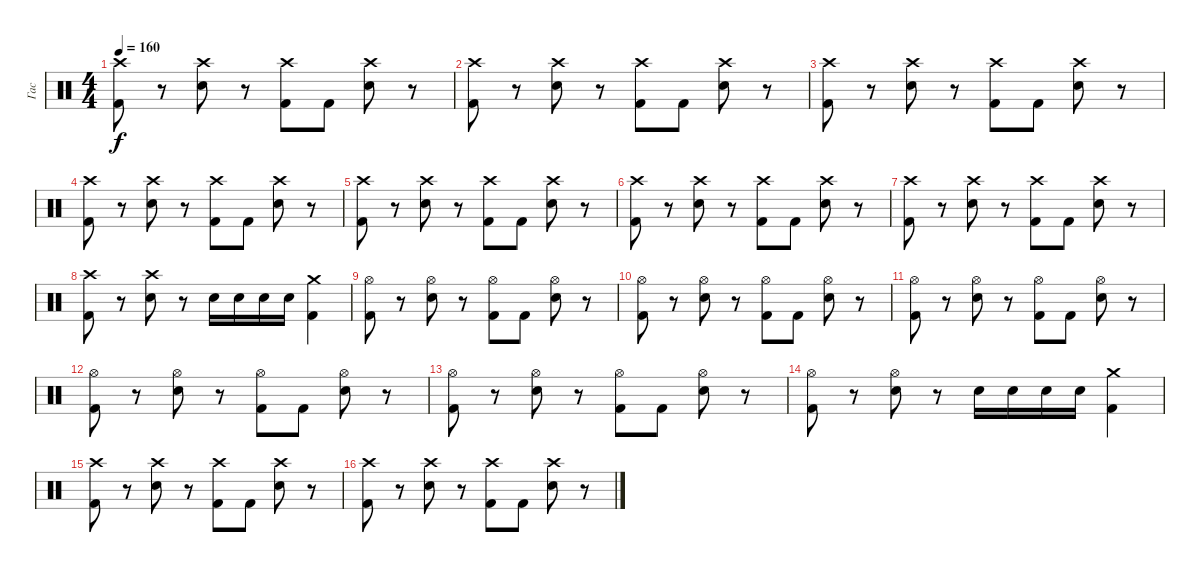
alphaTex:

\track ("Гас" "Гас") {instrument percussion}
\staff {score}
\articulation defaults
\ts (4 4)
\tempo 160
\clef neutral
\ks c
("Crash high (hit)" "Kick (hit) 2").8{dy f} r.8 ("Crash high (hit)" "Electric Snare (hit)").8 r.8 ("Crash high (hit)" "Kick (hit) 2").8 "Kick (hit) 2".8 ("Crash high (hit)" "Electric Snare (hit)").8 r.8 |
("Crash high (hit)" "Kick (hit) 2").8 r.8 ("Crash high (hit)" "Electric Snare (hit)").8 r.8 ("Crash high (hit)" "Kick (hit) 2").8 "Kick (hit) 2".8 ("Crash high (hit)" "Electric Snare (hit)").8 r.8 |
("Crash high (hit)" "Kick (hit) 2").8 r.8 ("Crash high (hit)" "Electric Snare (hit)").8 r.8 ("Crash high (hit)" "Kick (hit) 2").8 "Kick (hit) 2".8 ("Crash high (hit)" "Electric Snare (hit)").8 r.8 |
("Crash high (hit)" "Kick (hit) 2").8 r.8 ("Crash high (hit)" "Electric Snare (hit)").8 r.8 ("Crash high (hit)" "Kick (hit) 2").8 "Kick (hit) 2".8 ("Crash high (hit)" "Electric Snare (hit)").8 r.8 |
("Crash high (hit)" "Kick (hit) 2").8 r.8 ("Crash high (hit)" "Electric Snare (hit)").8 r.8 ("Crash high (hit)" "Kick (hit) 2").8 "Kick (hit) 2".8 ("Crash high (hit)" "Electric Snare (hit)").8 r.8 |
("Crash high (hit)" "Kick (hit) 2").8 r.8 ("Crash high (hit)" "Electric Snare (hit)").8 r.8 ("Crash high (hit)" "Kick (hit) 2").8 "Kick (hit) 2".8 ("Crash high (hit)" "Electric Snare (hit)").8 r.8 |
("Crash high (hit)" "Kick (hit) 2").8 r.8 ("Crash high (hit)" "Electric Snare (hit)").8 r.8 ("Crash high (hit)" "Kick (hit) 2").8 "Kick (hit) 2".8 ("Crash high (hit)" "Electric Snare (hit)").8 r.8 |
("Crash high (hit)" "Kick (hit) 2").8 r.8 ("Crash high (hit)" "Electric Snare (hit)").8 r.8 "Electric Snare (hit)".16 "Electric Snare (hit)".16 "Electric Snare (hit)".16 "Electric Snare (hit)".16 ("Crash medium (hit)" "Kick (hit) 2").4 |
("Hi-Hat (open)" "Kick (hit) 2").8 r.8 ("Hi-Hat (open)" "Electric Snare (hit)").8 r.8 ("Hi-Hat (open)" "Kick (hit) 2").8 "Kick (hit) 2".8 ("Hi-Hat (open)" "Electric Snare (hit)").8 r.8 |
("Hi-Hat (open)" "Kick (hit) 2").8 r.8 ("Hi-Hat (open)" "Electric Snare (hit)").8 r.8 ("Hi-Hat (open)" "Kick (hit) 2").8 "Kick (hit) 2".8 ("Hi-Hat (open)" "Electric Snare (hit)").8 r.8 |
("Hi-Hat (open)" "Kick (hit) 2").8 r.8 ("Hi-Hat (open)" "Electric Snare (hit)").8 r.8 ("Hi-Hat (open)" "Kick (hit) 2").8 "Kick (hit) 2".8 ("Hi-Hat (open)" "Electric Snare (hit)").8 r.8 |
("Hi-Hat (open)" "Kick (hit) 2").8 r.8 ("Hi-Hat (open)" "Electric Snare (hit)").8 r.8 ("Hi-Hat (open)" "Kick (hit) 2").8 "Kick (hit) 2".8 ("Hi-Hat (open)" "Electric Snare (hit)").8 r.8 |
("Hi-Hat (open)" "Kick (hit) 2").8 r.8 ("Hi-Hat (open)" "Electric Snare (hit)").8 r.8 ("Hi-Hat (open)" "Kick (hit) 2").8 "Kick (hit) 2".8 ("Hi-Hat (open)" "Electric Snare (hit)").8 r.8 |
("Hi-Hat (open)" "Kick (hit) 2").8 r.8 ("Hi-Hat (open)" "Electric Snare (hit)").8 r.8 "Electric Snare (hit)".16 "Electric Snare (hit)".16 "Electric Snare (hit)".16 "Electric Snare (hit)".16 ("Crash medium (hit)" "Kick (hit) 2").4 |
("Crash high (hit)" "Kick (hit) 2").8 r.8 ("Crash high (hit)" "Electric Snare (hit)").8 r.8 ("Crash high (hit)" "Kick (hit) 2").8 "Kick (hit) 2".8 ("Crash high (hit)" "Electric Snare (hit)").8 r.8 |
("Crash high (hit)" "Kick (hit) 2").8 r.8 ("Crash high (hit)" "Electric Snare (hit)").8 r.8 ("Crash high (hit)" "Kick (hit) 2").8 "Kick (hit) 2".8 ("Crash high (hit)" "Electric Snare (hit)").8 r.8
